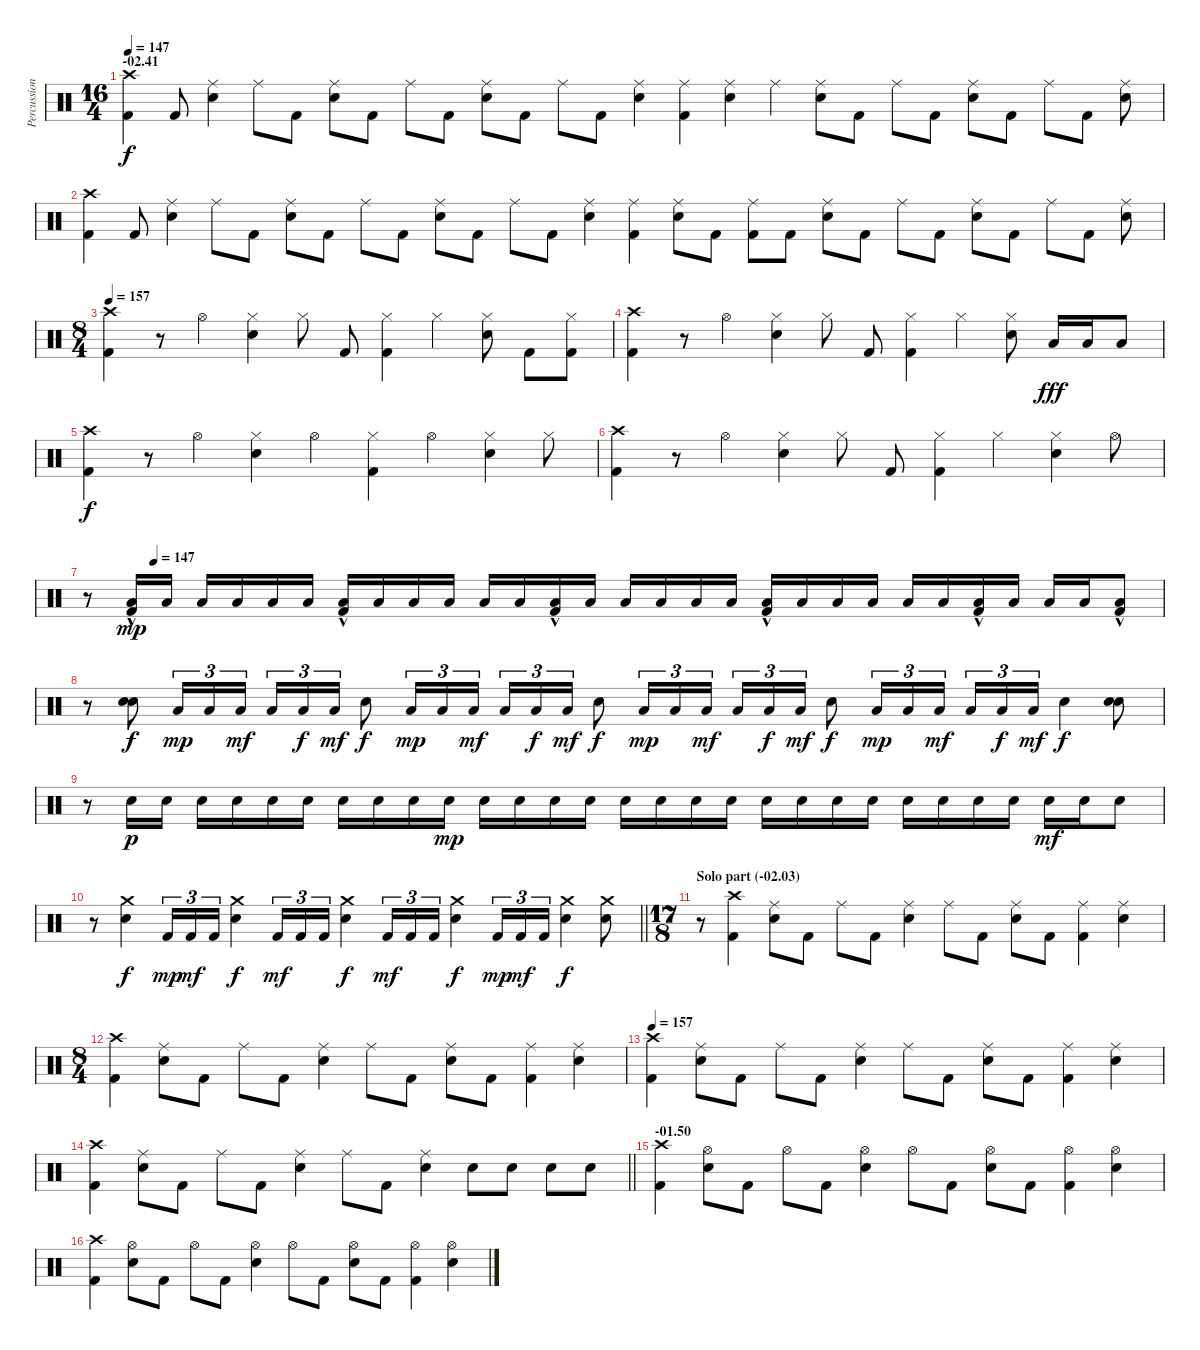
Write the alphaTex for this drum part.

\track ("Percussion" "Percussion") {instrument percussion}
\staff {score}
\articulation defaults
\ts (16 4)
\section ("" "-02.41")
\tempo 147
\clef neutral
\ks c
("Crash high (hit)" "Kick (hit) 2").4{dy f} "Kick (hit) 2".8 ("Ride (middle)" "Electric Snare (hit)").4 "Ride (middle)".8{beam merge} "Kick (hit) 2".8{beam split} ("Ride (middle)" "Electric Snare (hit)").8{beam merge} "Kick (hit) 2".8{beam split} "Ride (middle)".8{beam merge} "Kick (hit) 2".8{beam split} ("Ride (middle)" "Electric Snare (hit)").8{beam merge} "Kick (hit) 2".8{beam split} "Ride (middle)".8{beam merge} "Kick (hit) 2".8 ("Ride (middle)" "Electric Snare (hit)").4 ("Ride (middle)" "Kick (hit) 2").4 ("Ride (middle)" "Electric Snare (hit)").4 "Ride (middle)".4{beam split} ("Ride (middle)" "Electric Snare (hit)").8{beam merge} "Kick (hit) 2".8{beam split} "Ride (middle)".8{beam merge} "Kick (hit) 2".8{beam split} ("Ride (middle)" "Electric Snare (hit)").8{beam merge} "Kick (hit) 2".8{beam split} "Ride (middle)".8{beam merge} "Kick (hit) 2".8{beam split} ("Ride (middle)" "Electric Snare (hit)").8 |
("Crash high (hit)" "Kick (hit) 2").4 "Kick (hit) 2".8 ("Ride (middle)" "Electric Snare (hit)").4 "Ride (middle)".8{beam merge} "Kick (hit) 2".8{beam split} ("Ride (middle)" "Electric Snare (hit)").8{beam merge} "Kick (hit) 2".8{beam split} "Ride (middle)".8{beam merge} "Kick (hit) 2".8{beam split} ("Ride (middle)" "Electric Snare (hit)").8{beam merge} "Kick (hit) 2".8{beam split} "Ride (middle)".8{beam merge} "Kick (hit) 2".8 ("Ride (middle)" "Electric Snare (hit)").4 ("Ride (middle)" "Kick (hit) 2").4 ("Ride (middle)" "Electric Snare (hit)").8{beam merge} "Kick (hit) 2".8{beam split} ("Ride (middle)" "Kick (hit) 2").8{beam merge} "Kick (hit) 2".8{beam split} ("Ride (middle)" "Electric Snare (hit)").8{beam merge} "Kick (hit) 2".8{beam split} "Ride (middle)".8{beam merge} "Kick (hit) 2".8{beam split} ("Ride (middle)" "Electric Snare (hit)").8{beam merge} "Kick (hit) 2".8{beam split} "Ride (middle)".8{beam merge} "Kick (hit) 2".8{beam split} ("Ride (middle)" "Electric Snare (hit)").8 |
\ts (8 4)
\tempo 157
("Crash high (hit)" "Kick (hit) 2").4 r.8 "Hi-Hat (open)".4 ("Hi-Hat (closed)" "Electric Snare (hit)").4 "Hi-Hat (closed)".8 "Kick (hit) 2".8 ("Hi-Hat (closed)" "Kick (hit) 2").4 "Hi-Hat (closed)".4 ("Hi-Hat (closed)" "Electric Snare (hit)").8 "Kick (hit) 2".8 ("Hi-Hat (closed)" "Kick (hit) 2").8 |
("Crash high (hit)" "Kick (hit) 2").4 r.8 "Hi-Hat (open)".4 ("Hi-Hat (closed)" "Electric Snare (hit)").4 "Hi-Hat (closed)".8 "Kick (hit) 2".8 ("Hi-Hat (closed)" "Kick (hit) 2").4 "Hi-Hat (closed)".4 ("Hi-Hat (closed)" "Electric Snare (hit)").8 "Low Tom (hit)".16{dy fff} "Low Tom (hit)".16 "Low Tom (hit)".8 |
("Crash high (hit)" "Kick (hit) 2").4{dy f} r.8 "Hi-Hat (open)".4 ("Hi-Hat (closed)" "Electric Snare (hit)").4 "Hi-Hat (open)".4 ("Hi-Hat (closed)" "Kick (hit) 2").4 "Hi-Hat (open)".4 ("Hi-Hat (closed)" "Electric Snare (hit)").4 "Hi-Hat (closed)".8 |
("Crash high (hit)" "Kick (hit) 2").4 r.8 "Hi-Hat (open)".4 ("Hi-Hat (closed)" "Electric Snare (hit)").4 "Hi-Hat (closed)".8 "Kick (hit) 2".8 ("Hi-Hat (closed)" "Kick (hit) 2").4 "Hi-Hat (closed)".4 ("Hi-Hat (closed)" "Electric Snare (hit)").4 "Hi-Hat (open)".8 |
\tempo (147 0.0625)
r.8 ("Low Tom (hit)"{hac} "Kick (hit) 2").16{dy mp} "Low Tom (hit)".16 "Low Tom (hit)".16 "Low Tom (hit)".16 "Low Tom (hit)".16 "Low Tom (hit)".16 ("Low Tom (hit)"{hac} "Kick (hit) 2").16 "Low Tom (hit)".16 "Low Tom (hit)".16 "Low Tom (hit)".16 "Low Tom (hit)".16 "Low Tom (hit)".16 ("Low Tom (hit)"{hac} "Kick (hit) 2").16 "Low Tom (hit)".16 "Low Tom (hit)".16 "Low Tom (hit)".16 "Low Tom (hit)".16 "Low Tom (hit)".16 ("Low Tom (hit)"{hac} "Kick (hit) 2").16 "Low Tom (hit)".16 "Low Tom (hit)".16 "Low Tom (hit)".16 "Low Tom (hit)".16 "Low Tom (hit)".16 ("Low Tom (hit)"{hac} "Kick (hit) 2").16 "Low Tom (hit)".16 "Low Tom (hit)".16 "Low Tom (hit)".16 ("Low Tom (hit)"{hac} "Kick (hit) 2").8 |
r.8 ("Electric Snare (hit)" "Electric Snare (hit)").8{dy f} "Low Tom (hit)".16{tu (3 2) dy mp} "Low Tom (hit)".16{tu (3 2)} "Low Tom (hit)".16{tu (3 2) dy mf beam splitsecondary} "Low Tom (hit)".16{tu (3 2)} "Low Tom (hit)".16{tu (3 2) dy f} "Low Tom (hit)".16{tu (3 2) dy mf} "Electric Snare (hit)".8{dy f} "Low Tom (hit)".16{tu (3 2) dy mp} "Low Tom (hit)".16{tu (3 2)} "Low Tom (hit)".16{tu (3 2) dy mf} "Low Tom (hit)".16{tu (3 2)} "Low Tom (hit)".16{tu (3 2) dy f} "Low Tom (hit)".16{tu (3 2) dy mf} "Electric Snare (hit)".8{dy f} "Low Tom (hit)".16{tu (3 2) dy mp} "Low Tom (hit)".16{tu (3 2)} "Low Tom (hit)".16{tu (3 2) dy mf beam splitsecondary} "Low Tom (hit)".16{tu (3 2)} "Low Tom (hit)".16{tu (3 2) dy f} "Low Tom (hit)".16{tu (3 2) dy mf} "Electric Snare (hit)".8{dy f} "Low Tom (hit)".16{tu (3 2) dy mp} "Low Tom (hit)".16{tu (3 2)} "Low Tom (hit)".16{tu (3 2) dy mf} "Low Tom (hit)".16{tu (3 2)} "Low Tom (hit)".16{tu (3 2) dy f} "Low Tom (hit)".16{tu (3 2) dy mf} "Electric Snare (hit)".4{dy f} ("Electric Snare (hit)" "Electric Snare (hit)").8 |
r.8 "Electric Snare (hit)".16{dy p} "Electric Snare (hit)".16 "Electric Snare (hit)".16 "Electric Snare (hit)".16 "Electric Snare (hit)".16 "Electric Snare (hit)".16 "Electric Snare (hit)".16 "Electric Snare (hit)".16 "Electric Snare (hit)".16 "Electric Snare (hit)".16{dy mp} "Electric Snare (hit)".16 "Electric Snare (hit)".16 "Electric Snare (hit)".16 "Electric Snare (hit)".16 "Electric Snare (hit)".16 "Electric Snare (hit)".16 "Electric Snare (hit)".16 "Electric Snare (hit)".16 "Electric Snare (hit)".16 "Electric Snare (hit)".16 "Electric Snare (hit)".16 "Electric Snare (hit)".16 "Electric Snare (hit)".16 "Electric Snare (hit)".16 "Electric Snare (hit)".16 "Electric Snare (hit)".16 "Electric Snare (hit)".16{dy mf} "Electric Snare (hit)".16 "Electric Snare (hit)".8 |
\barLineRight lightlight
r.8 ("Crash medium (hit)" "Electric Snare (hit)").4{dy f} "Kick (hit) 2".16{tu (3 2) dy mp} "Kick (hit) 2".16{tu (3 2) dy mf} "Kick (hit) 2".16{tu (3 2)} ("Crash medium (hit)" "Electric Snare (hit)").4{dy f} "Kick (hit) 2".16{tu (3 2) dy mf} "Kick (hit) 2".16{tu (3 2)} "Kick (hit) 2".16{tu (3 2)} ("Crash medium (hit)" "Electric Snare (hit)").4{dy f} "Kick (hit) 2".16{tu (3 2) dy mf} "Kick (hit) 2".16{tu (3 2)} "Kick (hit) 2".16{tu (3 2)} ("Crash medium (hit)" "Electric Snare (hit)").4{dy f} "Kick (hit) 2".16{tu (3 2) dy mp} "Kick (hit) 2".16{tu (3 2) dy mf} "Kick (hit) 2".16{tu (3 2)} ("Crash medium (hit)" "Electric Snare (hit)").4{dy f} ("Crash medium (hit)" "Electric Snare (hit)").8 |
\ts (17 8)
\section ("" "Solo part (-02.03)")
r.8 ("Crash high (hit)" "Kick (hit) 2").4 ("Ride (middle)" "Electric Snare (hit)").8{beam merge} "Kick (hit) 2".8{beam split} "Ride (middle)".8{beam merge} "Kick (hit) 2".8 ("Ride (middle)" "Electric Snare (hit)").4 "Ride (middle)".8{beam merge} "Kick (hit) 2".8{beam split} ("Ride (middle)" "Electric Snare (hit)").8{beam merge} "Kick (hit) 2".8 ("Ride (middle)" "Kick (hit) 2").4 ("Ride (middle)" "Electric Snare (hit)").4 |
\ts (8 4)
("Crash high (hit)" "Kick (hit) 2").4 ("Ride (middle)" "Electric Snare (hit)").8{beam merge} "Kick (hit) 2".8{beam split} "Ride (middle)".8{beam merge} "Kick (hit) 2".8 ("Ride (middle)" "Electric Snare (hit)").4 "Ride (middle)".8{beam merge} "Kick (hit) 2".8{beam split} ("Ride (middle)" "Electric Snare (hit)").8{beam merge} "Kick (hit) 2".8 ("Ride (middle)" "Kick (hit) 2").4 ("Ride (middle)" "Electric Snare (hit)").4 |
\tempo 157
("Crash high (hit)" "Kick (hit) 2").4 ("Ride (middle)" "Electric Snare (hit)").8{beam merge} "Kick (hit) 2".8{beam split} "Ride (middle)".8{beam merge} "Kick (hit) 2".8 ("Ride (middle)" "Electric Snare (hit)").4 "Ride (middle)".8{beam merge} "Kick (hit) 2".8{beam split} ("Ride (middle)" "Electric Snare (hit)").8{beam merge} "Kick (hit) 2".8 ("Ride (middle)" "Kick (hit) 2").4 ("Ride (middle)" "Electric Snare (hit)").4 |
\barLineRight lightlight
("Crash high (hit)" "Kick (hit) 2").4 ("Ride (middle)" "Electric Snare (hit)").8{beam merge} "Kick (hit) 2".8{beam split} "Ride (middle)".8{beam merge} "Kick (hit) 2".8 ("Ride (middle)" "Electric Snare (hit)").4 "Ride (middle)".8{beam merge} "Kick (hit) 2".8 ("Ride (middle)" "Electric Snare (hit)").4 "Electric Snare (hit)".8 "Electric Snare (hit)".8 "Electric Snare (hit)".8 "Electric Snare (hit)".8 |
\section ("" "-01.50")
("Crash high (hit)" "Kick (hit) 2").4 ("Hi-Hat (open)" "Electric Snare (hit)").8{beam merge} "Kick (hit) 2".8{beam split} "Hi-Hat (open)".8{beam merge} "Kick (hit) 2".8 ("Hi-Hat (open)" "Electric Snare (hit)").4 "Hi-Hat (open)".8{beam merge} "Kick (hit) 2".8{beam split} ("Hi-Hat (open)" "Electric Snare (hit)").8{beam merge} "Kick (hit) 2".8 ("Hi-Hat (open)" "Kick (hit) 2").4 ("Hi-Hat (open)" "Electric Snare (hit)").4 |
("Crash high (hit)" "Kick (hit) 2").4 ("Hi-Hat (open)" "Electric Snare (hit)").8{beam merge} "Kick (hit) 2".8{beam split} "Hi-Hat (open)".8{beam merge} "Kick (hit) 2".8 ("Hi-Hat (open)" "Electric Snare (hit)").4 "Hi-Hat (open)".8{beam merge} "Kick (hit) 2".8{beam split} ("Hi-Hat (open)" "Electric Snare (hit)").8{beam merge} "Kick (hit) 2".8 ("Hi-Hat (open)" "Kick (hit) 2").4 ("Hi-Hat (open)" "Electric Snare (hit)").4
